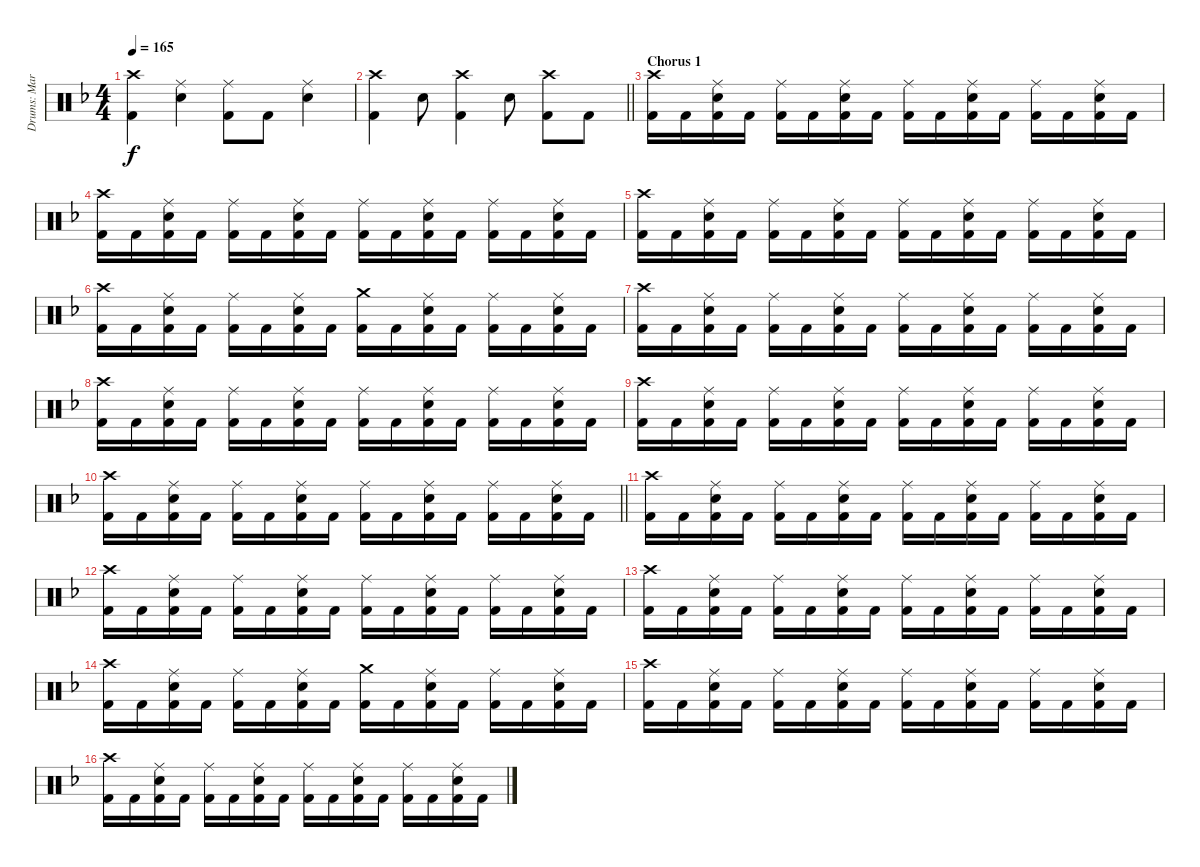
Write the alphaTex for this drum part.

\track ("Drums: Martin Herzinger" "Drums: Mar") {instrument percussion}
\staff {score}
\articulation defaults
\ts (4 4)
\tempo 165
\clef neutral
\ks dminor
("Crash high (hit)" "Kick (hit) 2").4{dy f} ("Ride (middle)" "Snare (hit) 2").4 ("Ride (middle)" "Kick (hit) 2").8 "Kick (hit) 2".8 ("Ride (middle)" "Snare (hit) 2").4 |
\barLineRight lightlight
("Crash high (hit)" "Kick (hit) 2").4 "Snare (hit) 2".8 ("Crash high (hit)" "Kick (hit) 2").4 "Snare (hit) 2".8 ("Crash high (hit)" "Kick (hit) 2").8 "Kick (hit) 2".8 |
\section ("" "Chorus 1")
("Crash high (hit)" "Kick (hit) 2").16 "Kick (hit) 2".16 ("Ride (middle)" "Snare (hit) 2" "Kick (hit) 2").16 "Kick (hit) 2".16 ("Ride (middle)" "Kick (hit) 2").16 "Kick (hit) 2".16 ("Ride (middle)" "Snare (hit) 2" "Kick (hit) 2").16 "Kick (hit) 2".16 ("Ride (middle)" "Kick (hit) 2").16 "Kick (hit) 2".16 ("Ride (middle)" "Snare (hit) 2" "Kick (hit) 2").16 "Kick (hit) 2".16 ("Ride (middle)" "Kick (hit) 2").16 "Kick (hit) 2".16 ("Ride (middle)" "Snare (hit) 2" "Kick (hit) 2").16 "Kick (hit) 2".16 |
("Crash high (hit)" "Kick (hit) 2").16 "Kick (hit) 2".16 ("Ride (middle)" "Snare (hit) 2" "Kick (hit) 2").16 "Kick (hit) 2".16 ("Ride (middle)" "Kick (hit) 2").16 "Kick (hit) 2".16 ("Ride (middle)" "Snare (hit) 2" "Kick (hit) 2").16 "Kick (hit) 2".16 ("Ride (middle)" "Kick (hit) 2").16 "Kick (hit) 2".16 ("Ride (middle)" "Snare (hit) 2" "Kick (hit) 2").16 "Kick (hit) 2".16 ("Ride (middle)" "Kick (hit) 2").16 "Kick (hit) 2".16 ("Ride (middle)" "Snare (hit) 2" "Kick (hit) 2").16 "Kick (hit) 2".16 |
("Crash high (hit)" "Kick (hit) 2").16 "Kick (hit) 2".16 ("Ride (middle)" "Snare (hit) 2" "Kick (hit) 2").16 "Kick (hit) 2".16 ("Ride (middle)" "Kick (hit) 2").16 "Kick (hit) 2".16 ("Ride (middle)" "Snare (hit) 2" "Kick (hit) 2").16 "Kick (hit) 2".16 ("Ride (middle)" "Kick (hit) 2").16 "Kick (hit) 2".16 ("Ride (middle)" "Snare (hit) 2" "Kick (hit) 2").16 "Kick (hit) 2".16 ("Ride (middle)" "Kick (hit) 2").16 "Kick (hit) 2".16 ("Ride (middle)" "Snare (hit) 2" "Kick (hit) 2").16 "Kick (hit) 2".16 |
("Crash high (hit)" "Kick (hit) 2").16 "Kick (hit) 2".16 ("Ride (middle)" "Snare (hit) 2" "Kick (hit) 2").16 "Kick (hit) 2".16 ("Ride (middle)" "Kick (hit) 2").16 "Kick (hit) 2".16 ("Ride (middle)" "Snare (hit) 2" "Kick (hit) 2").16 "Kick (hit) 2".16 ("Crash medium (hit)" "Kick (hit) 2").16 "Kick (hit) 2".16 ("Ride (middle)" "Snare (hit) 2" "Kick (hit) 2").16 "Kick (hit) 2".16 ("Ride (middle)" "Kick (hit) 2").16 "Kick (hit) 2".16 ("Ride (middle)" "Snare (hit) 2" "Kick (hit) 2").16 "Kick (hit) 2".16 |
("Crash high (hit)" "Kick (hit) 2").16 "Kick (hit) 2".16 ("Ride (middle)" "Snare (hit) 2" "Kick (hit) 2").16 "Kick (hit) 2".16 ("Ride (middle)" "Kick (hit) 2").16 "Kick (hit) 2".16 ("Ride (middle)" "Snare (hit) 2" "Kick (hit) 2").16 "Kick (hit) 2".16 ("Ride (middle)" "Kick (hit) 2").16 "Kick (hit) 2".16 ("Ride (middle)" "Snare (hit) 2" "Kick (hit) 2").16 "Kick (hit) 2".16 ("Ride (middle)" "Kick (hit) 2").16 "Kick (hit) 2".16 ("Ride (middle)" "Snare (hit) 2" "Kick (hit) 2").16 "Kick (hit) 2".16 |
("Crash high (hit)" "Kick (hit) 2").16 "Kick (hit) 2".16 ("Ride (middle)" "Snare (hit) 2" "Kick (hit) 2").16 "Kick (hit) 2".16 ("Ride (middle)" "Kick (hit) 2").16 "Kick (hit) 2".16 ("Ride (middle)" "Snare (hit) 2" "Kick (hit) 2").16 "Kick (hit) 2".16 ("Ride (middle)" "Kick (hit) 2").16 "Kick (hit) 2".16 ("Ride (middle)" "Snare (hit) 2" "Kick (hit) 2").16 "Kick (hit) 2".16 ("Ride (middle)" "Kick (hit) 2").16 "Kick (hit) 2".16 ("Ride (middle)" "Snare (hit) 2" "Kick (hit) 2").16 "Kick (hit) 2".16 |
("Crash high (hit)" "Kick (hit) 2").16 "Kick (hit) 2".16 ("Ride (middle)" "Snare (hit) 2" "Kick (hit) 2").16 "Kick (hit) 2".16 ("Ride (middle)" "Kick (hit) 2").16 "Kick (hit) 2".16 ("Ride (middle)" "Snare (hit) 2" "Kick (hit) 2").16 "Kick (hit) 2".16 ("Ride (middle)" "Kick (hit) 2").16 "Kick (hit) 2".16 ("Ride (middle)" "Snare (hit) 2" "Kick (hit) 2").16 "Kick (hit) 2".16 ("Ride (middle)" "Kick (hit) 2").16 "Kick (hit) 2".16 ("Ride (middle)" "Snare (hit) 2" "Kick (hit) 2").16 "Kick (hit) 2".16 |
\barLineRight lightlight
("Crash high (hit)" "Kick (hit) 2").16 "Kick (hit) 2".16 ("Ride (middle)" "Snare (hit) 2" "Kick (hit) 2").16 "Kick (hit) 2".16 ("Ride (middle)" "Kick (hit) 2").16 "Kick (hit) 2".16 ("Ride (middle)" "Snare (hit) 2" "Kick (hit) 2").16 "Kick (hit) 2".16 ("Ride (middle)" "Kick (hit) 2").16 "Kick (hit) 2".16 ("Ride (middle)" "Snare (hit) 2" "Kick (hit) 2").16 "Kick (hit) 2".16 ("Ride (middle)" "Kick (hit) 2").16 "Kick (hit) 2".16 ("Ride (middle)" "Snare (hit) 2" "Kick (hit) 2").16 "Kick (hit) 2".16 |
("Crash high (hit)" "Kick (hit) 2").16 "Kick (hit) 2".16 ("Ride (middle)" "Snare (hit) 2" "Kick (hit) 2").16 "Kick (hit) 2".16 ("Ride (middle)" "Kick (hit) 2").16 "Kick (hit) 2".16 ("Ride (middle)" "Snare (hit) 2" "Kick (hit) 2").16 "Kick (hit) 2".16 ("Ride (middle)" "Kick (hit) 2").16 "Kick (hit) 2".16 ("Ride (middle)" "Snare (hit) 2" "Kick (hit) 2").16 "Kick (hit) 2".16 ("Ride (middle)" "Kick (hit) 2").16 "Kick (hit) 2".16 ("Ride (middle)" "Snare (hit) 2" "Kick (hit) 2").16 "Kick (hit) 2".16 |
("Crash high (hit)" "Kick (hit) 2").16 "Kick (hit) 2".16 ("Ride (middle)" "Snare (hit) 2" "Kick (hit) 2").16 "Kick (hit) 2".16 ("Ride (middle)" "Kick (hit) 2").16 "Kick (hit) 2".16 ("Ride (middle)" "Snare (hit) 2" "Kick (hit) 2").16 "Kick (hit) 2".16 ("Ride (middle)" "Kick (hit) 2").16 "Kick (hit) 2".16 ("Ride (middle)" "Snare (hit) 2" "Kick (hit) 2").16 "Kick (hit) 2".16 ("Ride (middle)" "Kick (hit) 2").16 "Kick (hit) 2".16 ("Ride (middle)" "Snare (hit) 2" "Kick (hit) 2").16 "Kick (hit) 2".16 |
("Crash high (hit)" "Kick (hit) 2").16 "Kick (hit) 2".16 ("Ride (middle)" "Snare (hit) 2" "Kick (hit) 2").16 "Kick (hit) 2".16 ("Ride (middle)" "Kick (hit) 2").16 "Kick (hit) 2".16 ("Ride (middle)" "Snare (hit) 2" "Kick (hit) 2").16 "Kick (hit) 2".16 ("Ride (middle)" "Kick (hit) 2").16 "Kick (hit) 2".16 ("Ride (middle)" "Snare (hit) 2" "Kick (hit) 2").16 "Kick (hit) 2".16 ("Ride (middle)" "Kick (hit) 2").16 "Kick (hit) 2".16 ("Ride (middle)" "Snare (hit) 2" "Kick (hit) 2").16 "Kick (hit) 2".16 |
("Crash high (hit)" "Kick (hit) 2").16 "Kick (hit) 2".16 ("Ride (middle)" "Snare (hit) 2" "Kick (hit) 2").16 "Kick (hit) 2".16 ("Ride (middle)" "Kick (hit) 2").16 "Kick (hit) 2".16 ("Ride (middle)" "Snare (hit) 2" "Kick (hit) 2").16 "Kick (hit) 2".16 ("Crash medium (hit)" "Kick (hit) 2").16 "Kick (hit) 2".16 ("Ride (middle)" "Snare (hit) 2" "Kick (hit) 2").16 "Kick (hit) 2".16 ("Ride (middle)" "Kick (hit) 2").16 "Kick (hit) 2".16 ("Ride (middle)" "Snare (hit) 2" "Kick (hit) 2").16 "Kick (hit) 2".16 |
("Crash high (hit)" "Kick (hit) 2").16 "Kick (hit) 2".16 ("Ride (middle)" "Snare (hit) 2" "Kick (hit) 2").16 "Kick (hit) 2".16 ("Ride (middle)" "Kick (hit) 2").16 "Kick (hit) 2".16 ("Ride (middle)" "Snare (hit) 2" "Kick (hit) 2").16 "Kick (hit) 2".16 ("Ride (middle)" "Kick (hit) 2").16 "Kick (hit) 2".16 ("Ride (middle)" "Snare (hit) 2" "Kick (hit) 2").16 "Kick (hit) 2".16 ("Ride (middle)" "Kick (hit) 2").16 "Kick (hit) 2".16 ("Ride (middle)" "Snare (hit) 2" "Kick (hit) 2").16 "Kick (hit) 2".16 |
("Crash high (hit)" "Kick (hit) 2").16 "Kick (hit) 2".16 ("Ride (middle)" "Snare (hit) 2" "Kick (hit) 2").16 "Kick (hit) 2".16 ("Ride (middle)" "Kick (hit) 2").16 "Kick (hit) 2".16 ("Ride (middle)" "Snare (hit) 2" "Kick (hit) 2").16 "Kick (hit) 2".16 ("Ride (middle)" "Kick (hit) 2").16 "Kick (hit) 2".16 ("Ride (middle)" "Snare (hit) 2" "Kick (hit) 2").16 "Kick (hit) 2".16 ("Ride (middle)" "Kick (hit) 2").16 "Kick (hit) 2".16 ("Ride (middle)" "Snare (hit) 2" "Kick (hit) 2").16 "Kick (hit) 2".16
